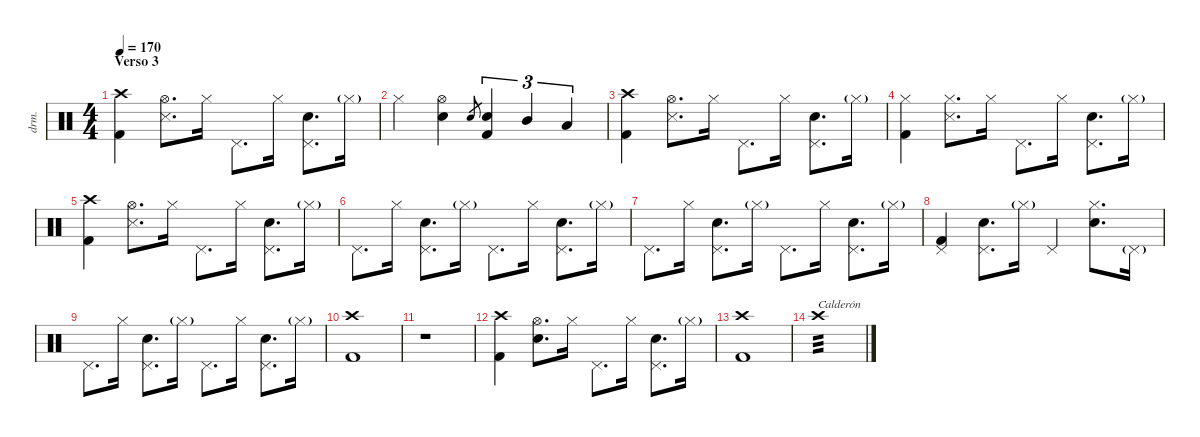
\defaultSystemsLayout 4
\hideDynamics
\useSystemSignSeparator
\otherSystemsTrackNameOrientation horizontal
\extendBarLines
\track ("Drums" "drm.") {instrument percussion}
\staff {score}
\articulation defaults
\ts (4 4)
\section ("" "Verso 3")
\tempo 170
\clef neutral
\ks c
("Crash high (hit)" "Kick (hit) 2").4{dy f beam Down} ("Hi-Hat (open)" "Snare (side stick) 3").8{d beam Down} "Hi-Hat (closed)".16{beam Down} "Pedal Hi-Hat (hit)".8{d beam Down} "Hi-Hat (closed)".16{beam Down} ("Pedal Hi-Hat (hit)" "Snare (hit) 2").8{d beam Down} "Hi-Hat (closed)"{g}.16{dy mf beam Down} |
"Hi-Hat (closed)".4{dy f beam Down} ("Hi-Hat (open)" "Snare (hit) 2").4{beam Down} "Snare (hit) 2".8{gr dy mf beam Up} ("Snare (hit) 2" "Kick (hit) 2").4{tu (3 2) dy f beam Up} "Mid Tom (hit)".4{tu (3 2) beam Up} "Low Tom (hit)".4{tu (3 2) beam Up} |
("Crash high (hit)" "Kick (hit) 2").4{beam Down} ("Hi-Hat (open)" "Snare (side stick) 3").8{d beam Down} "Hi-Hat (closed)".16{beam Down} "Pedal Hi-Hat (hit)".8{d beam Down} "Hi-Hat (closed)".16{beam Down} ("Pedal Hi-Hat (hit)" "Snare (hit) 2").8{d beam Down} "Hi-Hat (closed)"{g}.16{dy mf beam Down} |
("Hi-Hat (closed)" "Kick (hit) 2").4{dy f beam Down} ("Hi-Hat (closed)" "Snare (side stick) 3").8{d beam Down} "Hi-Hat (closed)".16{beam Down} "Pedal Hi-Hat (hit)".8{d beam Down} "Hi-Hat (closed)".16{beam Down} ("Pedal Hi-Hat (hit)" "Snare (hit) 2").8{d beam Down} "Hi-Hat (closed)"{g}.16{dy mf beam Down} |
("Crash high (hit)" "Kick (hit) 2").4{dy f beam Down} ("Hi-Hat (open)" "Snare (side stick) 3").8{d beam Down} "Hi-Hat (closed)".16{beam Down} "Pedal Hi-Hat (hit)".8{d beam Down} "Hi-Hat (closed)".16{beam Down} ("Pedal Hi-Hat (hit)" "Snare (hit) 2").8{d beam Down} "Hi-Hat (closed)"{g}.16{dy mf beam Down} |
"Pedal Hi-Hat (hit)".8{d dy f beam Down} "Hi-Hat (closed)".16{beam Down} ("Pedal Hi-Hat (hit)" "Snare (hit) 2").8{d beam Down} "Hi-Hat (closed)"{g}.16{dy mf beam Down} "Pedal Hi-Hat (hit)".8{d dy f beam Down} "Hi-Hat (closed)".16{beam Down} ("Pedal Hi-Hat (hit)" "Snare (hit) 2").8{d beam Down} "Hi-Hat (closed)"{g}.16{dy mf beam Down} |
"Pedal Hi-Hat (hit)".8{d dy f beam Down} "Hi-Hat (closed)".16{beam Down} ("Pedal Hi-Hat (hit)" "Snare (hit) 2").8{d beam Down} "Hi-Hat (closed)"{g}.16{dy mf beam Down} "Pedal Hi-Hat (hit)".8{d dy f beam Down} "Hi-Hat (closed)".16{beam Down} ("Pedal Hi-Hat (hit)" "Snare (hit) 2").8{d beam Down} "Hi-Hat (closed)"{g}.16{dy mf beam Down} |
("Pedal Hi-Hat (hit)" "Kick (hit) 2").4{dy f beam Up} ("Pedal Hi-Hat (hit)" "Snare (hit) 2").8{d beam Down} "Hi-Hat (closed)"{g}.16{dy mf beam Down} "Pedal Hi-Hat (hit)".4{dy f beam Up} ("Hi-Hat (closed)" "Snare (hit) 2").8{d beam Down} "Pedal Hi-Hat (hit)"{g}.16{dy mf beam Down} |
"Pedal Hi-Hat (hit)".8{d dy f beam Down} "Hi-Hat (closed)".16{beam Down} ("Pedal Hi-Hat (hit)" "Snare (hit) 2").8{d beam Down} "Hi-Hat (closed)"{g}.16{dy mf beam Down} "Pedal Hi-Hat (hit)".8{d dy f beam Down} "Hi-Hat (closed)".16{beam Down} ("Pedal Hi-Hat (hit)" "Snare (hit) 2").8{d beam Down} "Hi-Hat (closed)"{g}.16{dy mf beam Down} |
("Crash high (hit)" "Kick (hit) 2").1{beam Down} |
r.1{beam Down} |
("Crash high (hit)" "Kick (hit) 2").4{dy f beam Down} ("Hi-Hat (open)" "Snare (hit) 2").8{d beam Down} "Hi-Hat (closed)".16{beam Down} "Pedal Hi-Hat (hit)".8{d beam Down} "Hi-Hat (closed)".16{beam Down} ("Pedal Hi-Hat (hit)" "Snare (hit) 2").8{d beam Down} "Hi-Hat (closed)"{g}.16{dy mf beam Down} |
("Crash high (hit)" "Kick (hit) 2").1{dy f beam Down} |
"Crash high (hit)".1{txt "Calderón" tp 3 beam Down}
